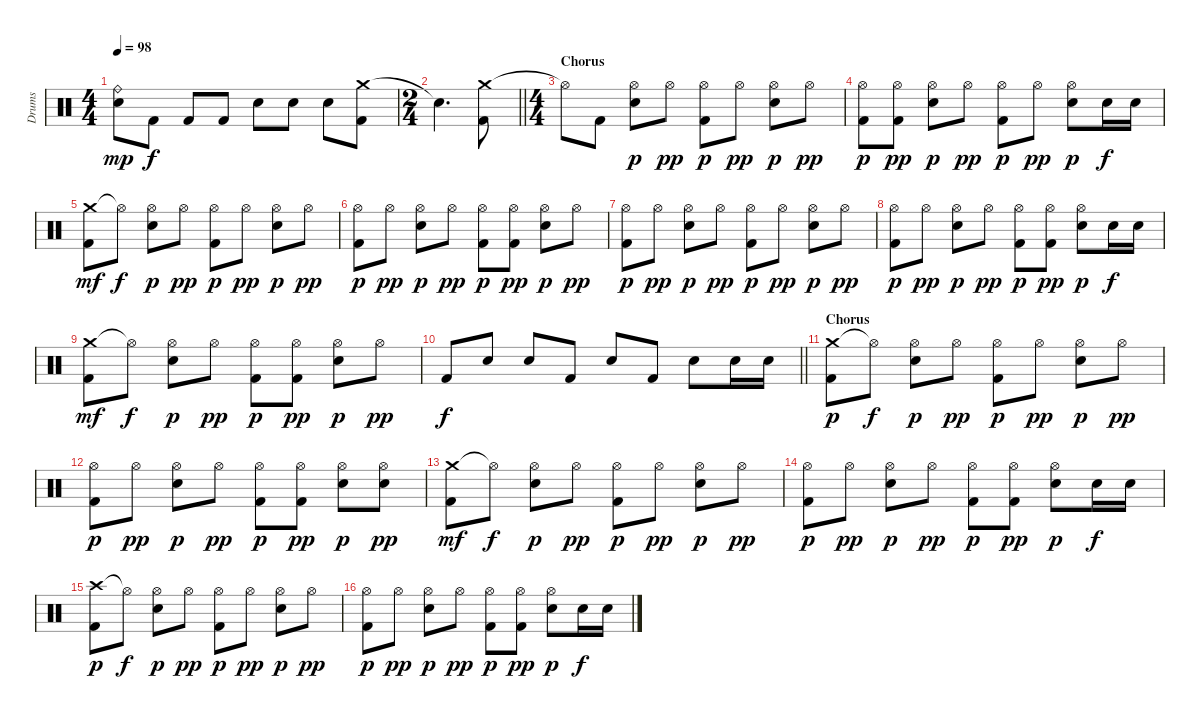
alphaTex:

\track ("Drums" "Drums") {instrument percussion}
\staff {score}
\articulation defaults
\ts (4 4)
\tempo 98
\clef neutral
\ks c
("Ride (bell)" "Electric Snare (hit)").8{dy mp} "Kick (hit) 2".8{dy f} "Kick (hit) 2".8 "Kick (hit) 2".8 "Electric Snare (hit)".8 "Electric Snare (hit)".8 "Electric Snare (hit)".8 ("Crash medium (hit)" "Kick (hit) 2").8 |
\ts (2 4)
\barLineRight lightlight "Snare (hit)"{t}.4{d}
("Crash medium (hit)" "Kick (hit) 2").8 |
\ts (4 4)
\section ("" "Chorus")
"Hi-Hat (open)"{t}.8 "Kick (hit) 2".8 ("Hi-Hat (open)" "Electric Snare (hit)").8{dy p} "Hi-Hat (open)".8{dy pp} ("Hi-Hat (open)" "Kick (hit) 2").8{dy p} "Hi-Hat (open)".8{dy pp} ("Hi-Hat (open)" "Electric Snare (hit)").8{dy p} "Hi-Hat (open)".8{dy pp} |
("Hi-Hat (open)" "Kick (hit) 2").8{dy p} ("Hi-Hat (open)" "Kick (hit) 2").8{dy pp} ("Hi-Hat (open)" "Electric Snare (hit)").8{dy p} "Hi-Hat (open)".8{dy pp} ("Hi-Hat (open)" "Kick (hit) 2").8{dy p} "Hi-Hat (open)".8{dy pp} ("Hi-Hat (open)" "Electric Snare (hit)").8{dy p} "Electric Snare (hit)".16{dy f} "Electric Snare (hit)".16 |
("Crash medium (hit)" "Kick (hit) 2").8{dy mf} "Hi-Hat (open)"{t}.8{dy f} ("Hi-Hat (open)" "Electric Snare (hit)").8{dy p} "Hi-Hat (open)".8{dy pp} ("Hi-Hat (open)" "Kick (hit) 2").8{dy p} "Hi-Hat (open)".8{dy pp} ("Hi-Hat (open)" "Electric Snare (hit)").8{dy p} "Hi-Hat (open)".8{dy pp} |
("Hi-Hat (open)" "Kick (hit) 2").8{dy p} "Hi-Hat (open)".8{dy pp} ("Hi-Hat (open)" "Electric Snare (hit)").8{dy p} "Hi-Hat (open)".8{dy pp} ("Hi-Hat (open)" "Kick (hit) 2").8{dy p} ("Hi-Hat (open)" "Kick (hit) 2").8{dy pp} ("Hi-Hat (open)" "Electric Snare (hit)").8{dy p} "Hi-Hat (open)".8{dy pp} |
("Hi-Hat (open)" "Kick (hit) 2").8{dy p} "Hi-Hat (open)".8{dy pp} ("Hi-Hat (open)" "Electric Snare (hit)").8{dy p} "Hi-Hat (open)".8{dy pp} ("Hi-Hat (open)" "Kick (hit) 2").8{dy p} "Hi-Hat (open)".8{dy pp} ("Hi-Hat (open)" "Electric Snare (hit)").8{dy p} "Hi-Hat (open)".8{dy pp} |
("Hi-Hat (open)" "Kick (hit) 2").8{dy p} "Hi-Hat (open)".8{dy pp} ("Hi-Hat (open)" "Electric Snare (hit)").8{dy p} "Hi-Hat (open)".8{dy pp} ("Hi-Hat (open)" "Kick (hit) 2").8{dy p} ("Hi-Hat (open)" "Kick (hit) 2").8{dy pp} ("Hi-Hat (open)" "Electric Snare (hit)").8{dy p} "Electric Snare (hit)".16{dy f} "Electric Snare (hit)".16 |
("Crash medium (hit)" "Kick (hit) 2").8{dy mf} "Hi-Hat (open)"{t}.8{dy f} ("Hi-Hat (open)" "Electric Snare (hit)").8{dy p} "Hi-Hat (open)".8{dy pp} ("Hi-Hat (open)" "Kick (hit) 2").8{dy p} ("Hi-Hat (open)" "Kick (hit) 2").8{dy pp} ("Hi-Hat (open)" "Electric Snare (hit)").8{dy p} "Hi-Hat (open)".8{dy pp} |
\barLineRight lightlight "Kick (hit) 2".8{dy f} "Electric Snare (hit)".8 "Electric Snare (hit)".8 "Kick (hit) 2".8 "Electric Snare (hit)".8 "Kick (hit) 2".8 "Electric Snare (hit)".8 "Electric Snare (hit)".16 "Electric Snare (hit)".16
|
\section ("" "Chorus")
("Crash medium (hit)" "Kick (hit) 2").8{dy p} "Hi-Hat (open)"{t}.8{dy f} ("Hi-Hat (open)" "Electric Snare (hit)").8{dy p} "Hi-Hat (open)".8{dy pp} ("Hi-Hat (open)" "Kick (hit) 2").8{dy p} "Hi-Hat (open)".8{dy pp} ("Hi-Hat (open)" "Electric Snare (hit)").8{dy p} "Hi-Hat (open)".8{dy pp} |
("Hi-Hat (open)" "Kick (hit) 2").8{dy p} "Hi-Hat (open)".8{dy pp} ("Hi-Hat (open)" "Electric Snare (hit)").8{dy p} "Hi-Hat (open)".8{dy pp} ("Hi-Hat (open)" "Kick (hit) 2").8{dy p} ("Hi-Hat (open)" "Kick (hit) 2").8{dy pp} ("Hi-Hat (open)" "Electric Snare (hit)").8{dy p} ("Hi-Hat (open)" "Electric Snare (hit)").8{dy pp} |
("Crash medium (hit)" "Kick (hit) 2").8{dy mf} "Hi-Hat (open)"{t}.8{dy f} ("Hi-Hat (open)" "Electric Snare (hit)").8{dy p} "Hi-Hat (open)".8{dy pp} ("Hi-Hat (open)" "Kick (hit) 2").8{dy p} "Hi-Hat (open)".8{dy pp} ("Hi-Hat (open)" "Electric Snare (hit)").8{dy p} "Hi-Hat (open)".8{dy pp} |
("Hi-Hat (open)" "Kick (hit) 2").8{dy p} "Hi-Hat (open)".8{dy pp} ("Hi-Hat (open)" "Electric Snare (hit)").8{dy p} "Hi-Hat (open)".8{dy pp} ("Hi-Hat (open)" "Kick (hit) 2").8{dy p} ("Hi-Hat (open)" "Kick (hit) 2").8{dy pp} ("Hi-Hat (open)" "Electric Snare (hit)").8{dy p} "Electric Snare (hit)".16{dy f} "Electric Snare (hit)".16 |
("Crash high (hit)" "Kick (hit) 2").8{dy p} "Hi-Hat (open)"{t}.8{dy f} ("Hi-Hat (open)" "Electric Snare (hit)").8{dy p} "Hi-Hat (open)".8{dy pp} ("Hi-Hat (open)" "Kick (hit) 2").8{dy p} "Hi-Hat (open)".8{dy pp} ("Hi-Hat (open)" "Electric Snare (hit)").8{dy p} "Hi-Hat (open)".8{dy pp} |
("Hi-Hat (open)" "Kick (hit) 2").8{dy p} "Hi-Hat (open)".8{dy pp} ("Hi-Hat (open)" "Electric Snare (hit)").8{dy p} "Hi-Hat (open)".8{dy pp} ("Hi-Hat (open)" "Kick (hit) 2").8{dy p} ("Hi-Hat (open)" "Kick (hit) 2").8{dy pp} ("Hi-Hat (open)" "Electric Snare (hit)").8{dy p} "Electric Snare (hit)".16{dy f} "Electric Snare (hit)".16
